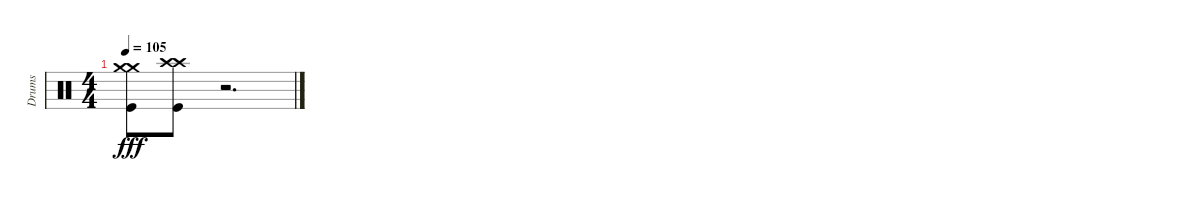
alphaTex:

\track ("Drums" "Drums") {instrument percussion}
\staff {score}
\articulation defaults
\ts (4 4)
\tempo 105
\clef neutral
\ks c
("Crash medium (hit)" "Crash medium (hit)" "Kick (hit)").8{dy fff} ("Crash high (hit)" "Crash high (hit)" "Kick (hit)").8 r.2{d}
